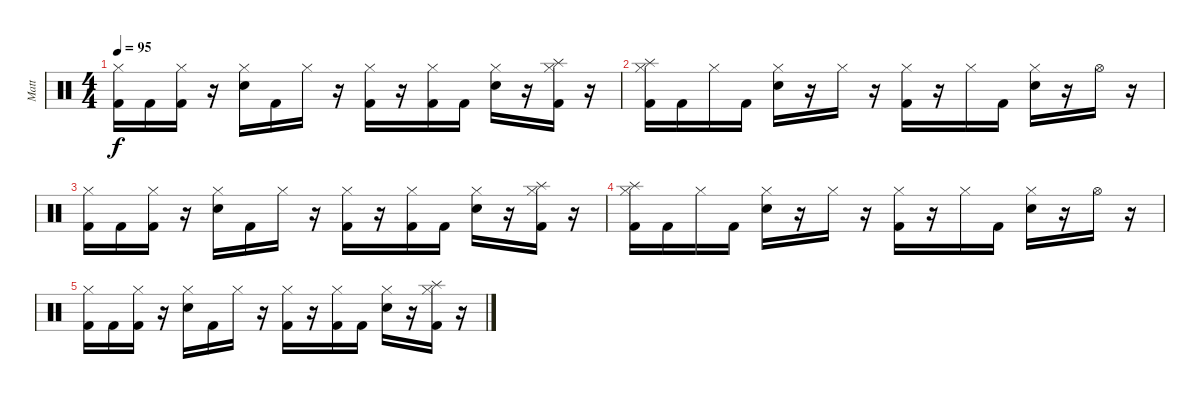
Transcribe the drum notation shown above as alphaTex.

\track ("Matt" "Matt") {instrument percussion}
\staff {score}
\articulation defaults
\ts (4 4)
\tempo 95
\clef neutral
\ks c
("Hi-Hat (closed)" "Kick (hit) 2").16{dy f} "Kick (hit) 2".16 ("Hi-Hat (closed)" "Kick (hit) 2").16 r.16 ("Hi-Hat (closed)" "Snare (hit) 2").16 "Kick (hit) 2".16 "Hi-Hat (closed)".16 r.16 ("Hi-Hat (closed)" "Kick (hit) 2").16 r.16 ("Hi-Hat (closed)" "Kick (hit) 2").16 "Kick (hit) 2".16 ("Hi-Hat (closed)" "Snare (hit) 2").16 r.16 ("Hi-Hat (closed)" "Kick (hit) 2" "Splash (hit)").16 r.16 |
("Hi-Hat (closed)" "Splash (hit)" "Kick (hit) 2").16 "Kick (hit) 2".16 "Hi-Hat (closed)".16 "Kick (hit) 2".16 ("Hi-Hat (closed)" "Snare (hit) 2").16 r.16 "Hi-Hat (closed)".16 r.16 ("Hi-Hat (closed)" "Kick (hit) 2").16 r.16 "Hi-Hat (closed)".16 "Kick (hit) 2".16 ("Hi-Hat (closed)" "Snare (hit) 2").16 r.16 "Hi-Hat (open)".16 r.16 |
("Hi-Hat (closed)" "Kick (hit) 2").16 "Kick (hit) 2".16 ("Hi-Hat (closed)" "Kick (hit) 2").16 r.16 ("Hi-Hat (closed)" "Snare (hit) 2").16 "Kick (hit) 2".16 "Hi-Hat (closed)".16 r.16 ("Hi-Hat (closed)" "Kick (hit) 2").16 r.16 ("Hi-Hat (closed)" "Kick (hit) 2").16 "Kick (hit) 2".16 ("Hi-Hat (closed)" "Snare (hit) 2").16 r.16 ("Hi-Hat (closed)" "Kick (hit) 2" "Splash (hit)").16 r.16 |
("Hi-Hat (closed)" "Splash (hit)" "Kick (hit) 2").16 "Kick (hit) 2".16 "Hi-Hat (closed)".16 "Kick (hit) 2".16 ("Hi-Hat (closed)" "Snare (hit) 2").16 r.16 "Hi-Hat (closed)".16 r.16 ("Hi-Hat (closed)" "Kick (hit) 2").16 r.16 "Hi-Hat (closed)".16 "Kick (hit) 2".16 ("Hi-Hat (closed)" "Snare (hit) 2").16 r.16 "Hi-Hat (open)".16 r.16 |
("Hi-Hat (closed)" "Kick (hit) 2").16 "Kick (hit) 2".16 ("Hi-Hat (closed)" "Kick (hit) 2").16 r.16 ("Hi-Hat (closed)" "Snare (hit) 2").16 "Kick (hit) 2".16 "Hi-Hat (closed)".16 r.16 ("Hi-Hat (closed)" "Kick (hit) 2").16 r.16 ("Hi-Hat (closed)" "Kick (hit) 2").16 "Kick (hit) 2".16 ("Hi-Hat (closed)" "Snare (hit) 2").16 r.16 ("Hi-Hat (closed)" "Kick (hit) 2" "Splash (hit)").16 r.16
